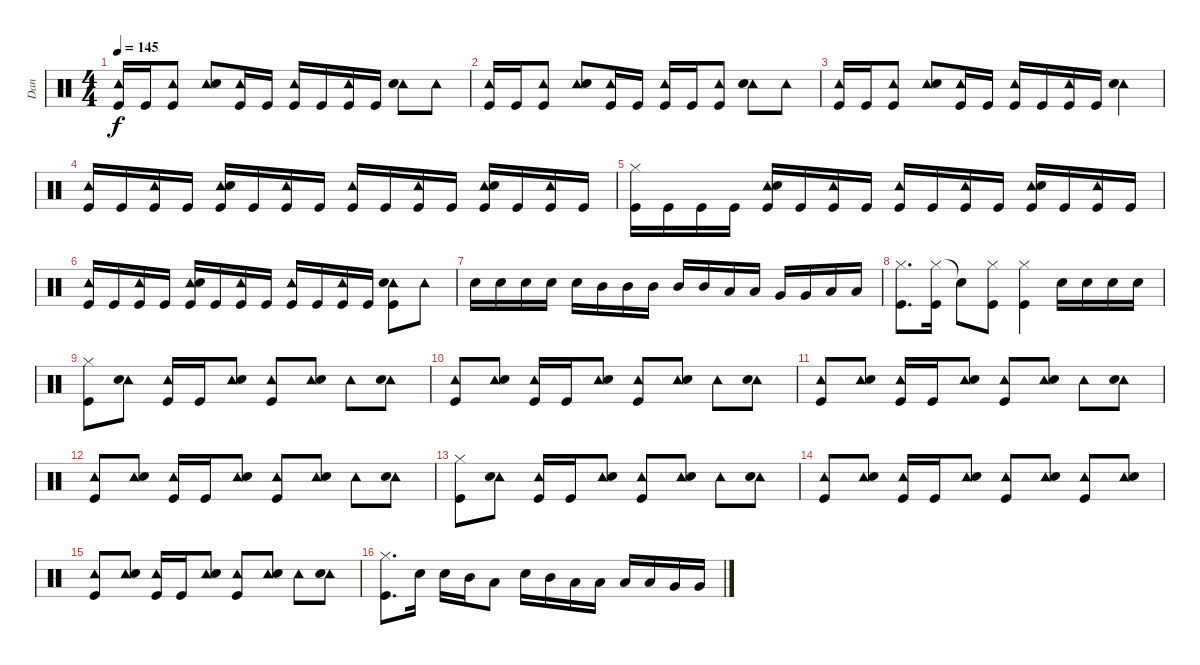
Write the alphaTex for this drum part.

\track ("Dan" "Dan") {instrument percussion}
\staff {score}
\articulation defaults
\ts (4 4)
\tempo 145
\clef neutral
\ks c
("Tambourine (hit)" "Kick (hit)").16{dy f} "Kick (hit)".16 ("Tambourine (hit)" "Kick (hit)").8 ("Tambourine (hit)" "Snare (hit) 2").8 ("Tambourine (hit)" "Kick (hit)").16 "Kick (hit)".16 ("Tambourine (hit)" "Kick (hit)").16 "Kick (hit)".16 ("Tambourine (hit)" "Kick (hit)").16 "Kick (hit)".16 ("Tambourine (hit)" "Snare (hit) 2").8 "Tambourine (hit)".8 |
("Tambourine (hit)" "Kick (hit)").16 "Kick (hit)".16 ("Tambourine (hit)" "Kick (hit)").8 ("Tambourine (hit)" "Snare (hit) 2").8 ("Tambourine (hit)" "Kick (hit)").16 "Kick (hit)".16 ("Tambourine (hit)" "Kick (hit)").16 "Kick (hit)".16 ("Tambourine (hit)" "Kick (hit)").8 ("Tambourine (hit)" "Snare (hit) 2").8 "Tambourine (hit)".8 |
("Tambourine (hit)" "Kick (hit)").16 "Kick (hit)".16 ("Tambourine (hit)" "Kick (hit)").8 ("Tambourine (hit)" "Snare (hit) 2").8 ("Tambourine (hit)" "Kick (hit)").16 "Kick (hit)".16 ("Tambourine (hit)" "Kick (hit)").16 "Kick (hit)".16 ("Tambourine (hit)" "Kick (hit)").16 "Kick (hit)".16 ("Tambourine (hit)" "Snare (hit) 2").4 |
("Tambourine (hit)" "Kick (hit)").16 "Kick (hit)".16 ("Tambourine (hit)" "Kick (hit)").16 "Kick (hit)".16 ("Tambourine (hit)" "Snare (hit) 2" "Kick (hit)").16 "Kick (hit)".16 ("Tambourine (hit)" "Kick (hit)").16 "Kick (hit)".16 ("Tambourine (hit)" "Kick (hit)").16 "Kick (hit)".16 ("Tambourine (hit)" "Kick (hit)").16 "Kick (hit)".16 ("Tambourine (hit)" "Snare (hit) 2" "Kick (hit)").16 "Kick (hit)".16 ("Tambourine (hit)" "Kick (hit)").16 "Kick (hit)".16 |
("Hi-Hat (closed)" "Kick (hit)").16 "Kick (hit)".16 "Kick (hit)".16 "Kick (hit)".16 ("Tambourine (hit)" "Snare (hit) 2" "Kick (hit)").16 "Kick (hit)".16 ("Tambourine (hit)" "Kick (hit)").16 "Kick (hit)".16 ("Tambourine (hit)" "Kick (hit)").16 "Kick (hit)".16 ("Tambourine (hit)" "Kick (hit)").16 "Kick (hit)".16 ("Tambourine (hit)" "Snare (hit) 2" "Kick (hit)").16 "Kick (hit)".16 ("Tambourine (hit)" "Kick (hit)").16 "Kick (hit)".16 |
("Tambourine (hit)" "Kick (hit)").16 "Kick (hit)".16 ("Tambourine (hit)" "Kick (hit)").16 "Kick (hit)".16 ("Tambourine (hit)" "Snare (hit) 2" "Kick (hit)").16 "Kick (hit)".16 ("Tambourine (hit)" "Kick (hit)").16 "Kick (hit)".16 ("Tambourine (hit)" "Kick (hit)").16 "Kick (hit)".16 ("Tambourine (hit)" "Kick (hit)").16 "Kick (hit)".16 ("Tambourine (hit)" "Snare (hit) 2" "Kick (hit)").8 "Tambourine (hit)".8 |
"Electric Snare (hit)".16 "Electric Snare (hit)".16 "Electric Snare (hit)".16 "Electric Snare (hit)".16 "Electric Snare (hit)".16 "Mid Tom (hit)".16 "Mid Tom (hit)".16 "Mid Tom (hit)".16 "Mid Tom (hit)".16 "Mid Tom (hit)".16 "Low Tom (hit)".16 "Low Tom (hit)".16 "Very Low Tom (hit)".16 "Very Low Tom (hit)".16 "Low Floor Tom (hit)".16 "Low Floor Tom (hit)".16 |
("Hi-Hat (closed)" "Kick (hit)").8{d} ("Hi-Hat (closed)" "Kick (hit)").16 "Snare (hit)"{t}.8 ("Hi-Hat (closed)" "Kick (hit)").8 ("Hi-Hat (closed)" "Kick (hit)").4 "Snare (hit) 2".16 "Snare (hit) 2".16 "Snare (hit) 2".16 "Snare (hit) 2".16 |
("Hi-Hat (closed)" "Kick (hit)").8 ("Tambourine (hit)" "Snare (hit) 2").8 ("Tambourine (hit)" "Kick (hit)").16 "Kick (hit)".16 ("Tambourine (hit)" "Snare (hit) 2").8 ("Tambourine (hit)" "Kick (hit)").8 ("Tambourine (hit)" "Snare (hit) 2").8 "Tambourine (hit)".8 ("Tambourine (hit)" "Snare (hit) 2").8 |
("Tambourine (hit)" "Kick (hit)").8 ("Tambourine (hit)" "Snare (hit) 2").8 ("Tambourine (hit)" "Kick (hit)").16 "Kick (hit)".16 ("Tambourine (hit)" "Snare (hit) 2").8 ("Tambourine (hit)" "Kick (hit)").8 ("Tambourine (hit)" "Snare (hit) 2").8 "Tambourine (hit)".8 ("Tambourine (hit)" "Snare (hit) 2").8 |
("Tambourine (hit)" "Kick (hit)").8 ("Tambourine (hit)" "Snare (hit) 2").8 ("Tambourine (hit)" "Kick (hit)").16 "Kick (hit)".16 ("Tambourine (hit)" "Snare (hit) 2").8 ("Tambourine (hit)" "Kick (hit)").8 ("Tambourine (hit)" "Snare (hit) 2").8 "Tambourine (hit)".8 ("Tambourine (hit)" "Snare (hit) 2").8 |
("Tambourine (hit)" "Kick (hit)").8 ("Tambourine (hit)" "Snare (hit) 2").8 ("Tambourine (hit)" "Kick (hit)").16 "Kick (hit)".16 ("Tambourine (hit)" "Snare (hit) 2").8 ("Tambourine (hit)" "Kick (hit)").8 ("Tambourine (hit)" "Snare (hit) 2").8 "Tambourine (hit)".8 ("Tambourine (hit)" "Snare (hit) 2").8 |
("Hi-Hat (closed)" "Kick (hit)").8 ("Tambourine (hit)" "Snare (hit) 2").8 ("Tambourine (hit)" "Kick (hit)").16 "Kick (hit)".16 ("Tambourine (hit)" "Snare (hit) 2").8 ("Tambourine (hit)" "Kick (hit)").8 ("Tambourine (hit)" "Snare (hit) 2").8 "Tambourine (hit)".8 ("Tambourine (hit)" "Snare (hit) 2").8 |
("Tambourine (hit)" "Kick (hit)").8 ("Tambourine (hit)" "Snare (hit) 2").8 ("Tambourine (hit)" "Kick (hit)").16 "Kick (hit)".16 ("Tambourine (hit)" "Snare (hit) 2").8 ("Tambourine (hit)" "Kick (hit)").8 ("Tambourine (hit)" "Snare (hit) 2").8 ("Tambourine (hit)" "Kick (hit)").8 ("Tambourine (hit)" "Snare (hit) 2").8 |
("Tambourine (hit)" "Kick (hit)").8 ("Tambourine (hit)" "Snare (hit) 2").8 ("Tambourine (hit)" "Kick (hit)").16 "Kick (hit)".16 ("Tambourine (hit)" "Snare (hit) 2").8 ("Tambourine (hit)" "Kick (hit)").8 ("Tambourine (hit)" "Snare (hit) 2").8 "Tambourine (hit)".8 ("Tambourine (hit)" "Snare (hit) 2").8 |
("Hi-Hat (closed)" "Kick (hit)").8{d} "Electric Snare (hit)".16 "Electric Snare (hit)".16 "Mid Tom (hit)".16 "Low Tom (hit)".8 "Electric Snare (hit)".16 "Mid Tom (hit)".16 "Low Tom (hit)".16 "Low Tom (hit)".16 "Low Tom (hit)".16 "Low Tom (hit)".16 "Very Low Tom (hit)".16 "Very Low Tom (hit)".16
